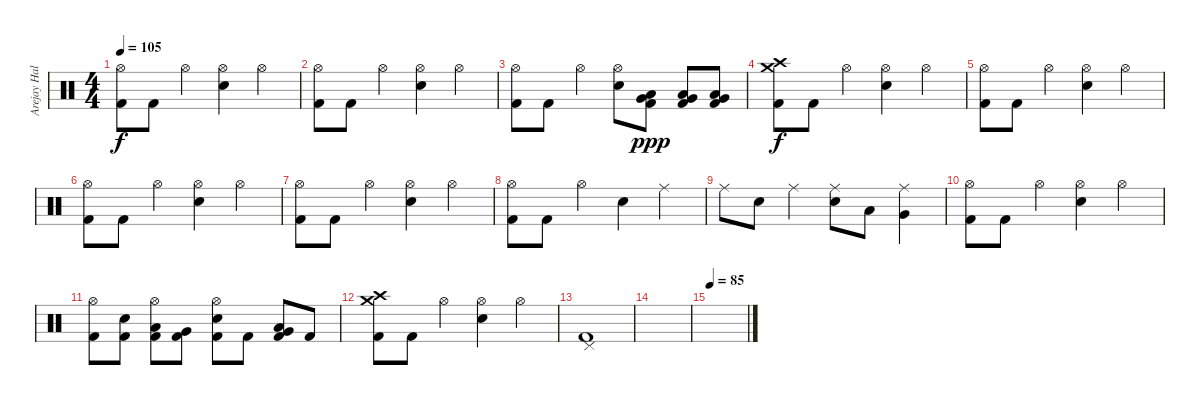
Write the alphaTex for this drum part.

\track ("Arejay Hale" "Arejay Hal") {instrument percussion}
\staff {score}
\articulation defaults
\ts (4 4)
\tempo 105
\clef neutral
\ks c
("Hi-Hat (open)" "Kick (hit) 2").8{dy f} "Kick (hit) 2".8 "Hi-Hat (open)".4 ("Hi-Hat (open)" "Electric Snare (hit)").4 "Hi-Hat (open)".4 |
("Hi-Hat (open)" "Kick (hit) 2").8 "Kick (hit) 2".8 "Hi-Hat (open)".4 ("Hi-Hat (open)" "Electric Snare (hit)").4 "Hi-Hat (open)".4 |
("Hi-Hat (open)" "Kick (hit) 2").8 "Kick (hit) 2".8 "Hi-Hat (open)".4 ("Hi-Hat (open)" "Electric Snare (hit)").8 ("Low Floor Tom (hit)" "Very Low Tom (hit)" "Kick (hit) 2").8{dy ppp} ("Low Floor Tom (hit)" "Very Low Tom (hit)" "Kick (hit) 2").8 ("Low Floor Tom (hit)" "Very Low Tom (hit)" "Kick (hit) 2").8 |
("Crash high (hit)" "Crash medium (hit)" "Kick (hit) 2").8{dy f} "Kick (hit) 2".8 "Hi-Hat (open)".4 ("Hi-Hat (open)" "Electric Snare (hit)").4 "Hi-Hat (open)".4 |
("Hi-Hat (open)" "Kick (hit) 2").8 "Kick (hit) 2".8 "Hi-Hat (open)".4 ("Hi-Hat (open)" "Electric Snare (hit)").4 "Hi-Hat (open)".4 |
("Hi-Hat (open)" "Kick (hit) 2").8 "Kick (hit) 2".8 "Hi-Hat (open)".4 ("Hi-Hat (open)" "Electric Snare (hit)").4 "Hi-Hat (open)".4 |
("Hi-Hat (open)" "Kick (hit) 2").8 "Kick (hit) 2".8 "Hi-Hat (open)".4 ("Hi-Hat (open)" "Electric Snare (hit)").4 "Hi-Hat (open)".4 |
("Hi-Hat (open)" "Kick (hit) 2").8 "Kick (hit) 2".8 "Hi-Hat (open)".4 "Electric Snare (hit)".4 "Ride (middle)".4 |
"Ride (middle)".8 "Electric Snare (hit)".8 "Ride (middle)".4 ("Ride (middle)" "Electric Snare (hit)").8 "Low Tom (hit)".8 ("Ride (middle)" "Very Low Tom (hit)").4 |
("Hi-Hat (open)" "Kick (hit) 2").8 "Kick (hit) 2".8 "Hi-Hat (open)".4 ("Hi-Hat (open)" "Electric Snare (hit)").4 "Hi-Hat (open)".4 |
("Hi-Hat (open)" "Kick (hit) 2").8 ("Electric Snare (hit)" "Kick (hit) 2").8 ("Hi-Hat (open)" "Low Tom (hit)" "Kick (hit) 2").8 ("Very Low Tom (hit)" "Kick (hit) 2").8 ("Hi-Hat (open)" "Electric Snare (hit)" "Kick (hit) 2").8 "Kick (hit) 2".8 ("Low Floor Tom (hit)" "Very Low Tom (hit)" "Kick (hit) 2").8 "Kick (hit) 2".8 |
("Crash high (hit)" "Crash medium (hit)" "Kick (hit) 2").8 "Kick (hit) 2".8 "Hi-Hat (open)".4 ("Hi-Hat (open)" "Electric Snare (hit)").4 "Hi-Hat (open)".4 |
("Pedal Hi-Hat (hit)" "Kick (hit) 2").1 |
|
\tempo 85
